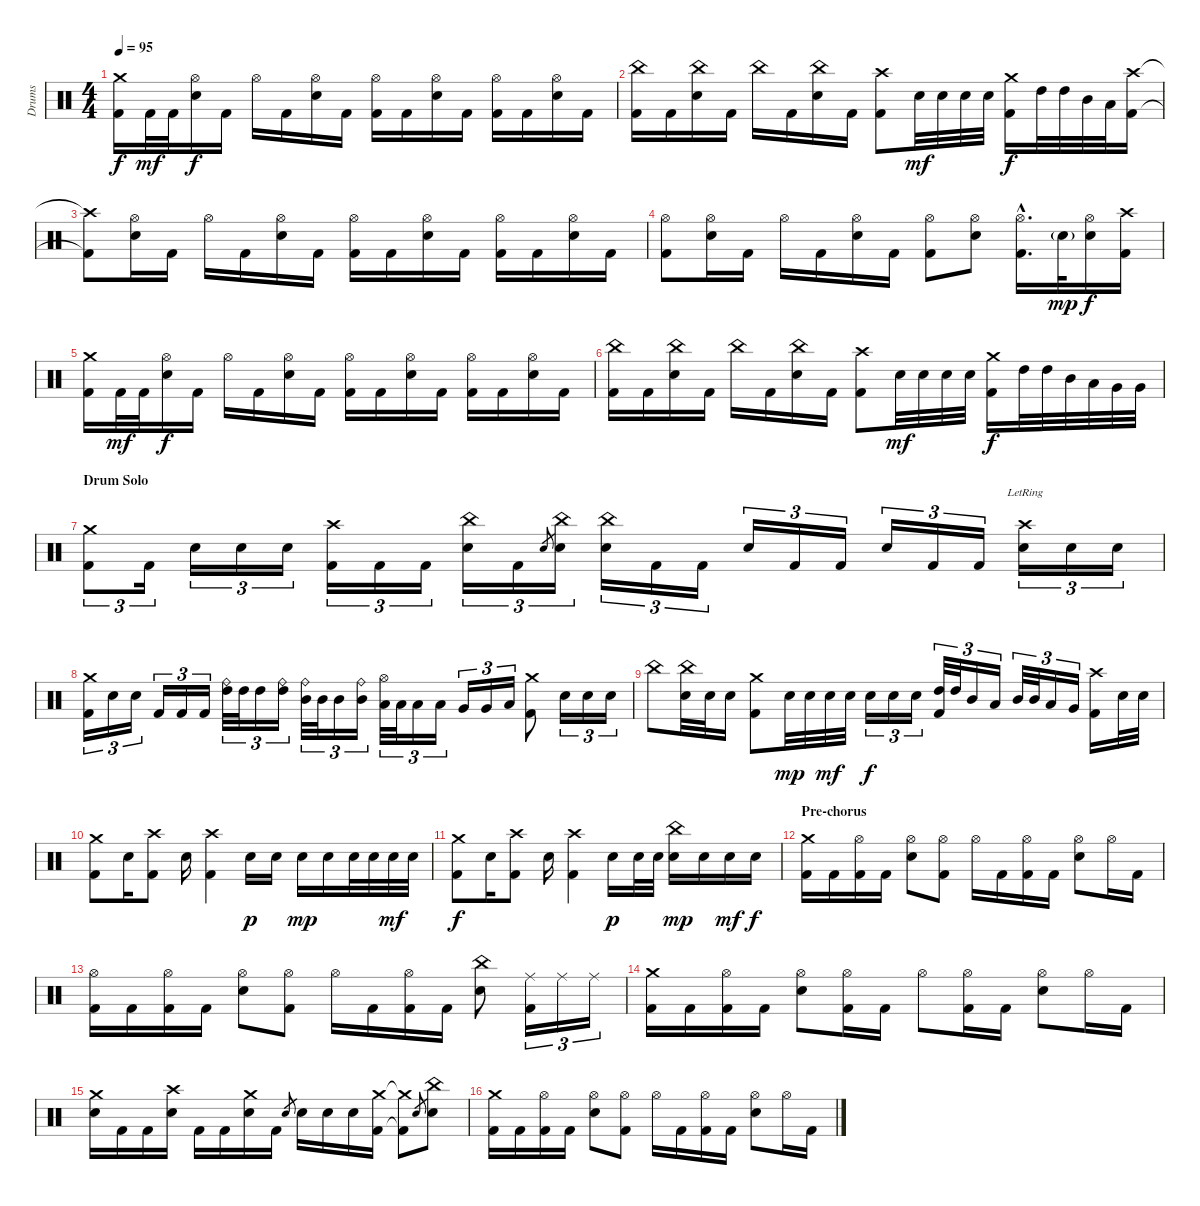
\track ("Drums" "Drums") {instrument percussion}
\staff {score}
\articulation defaults
\ts (4 4)
\tempo 95
\clef neutral
\ks c
("Crash medium (hit)" "Kick (hit) 2").16{dy f} "Kick (hit) 2".32{dy mf} "Kick (hit) 2".32 ("Hi-Hat (open)" "Snare (hit) 2").16{dy f} "Kick (hit) 2".16 "Hi-Hat (open)".16 "Kick (hit) 2".16 ("Hi-Hat (open)" "Snare (hit) 2").16 "Kick (hit) 2".16 ("Hi-Hat (open)" "Kick (hit) 2").16 "Kick (hit) 2".16 ("Hi-Hat (open)" "Snare (hit) 2").16 "Kick (hit) 2".16 ("Hi-Hat (open)" "Kick (hit) 2").16 "Kick (hit) 2".16 ("Hi-Hat (open)" "Snare (hit) 2").16 "Kick (hit) 2".16 |
("China (hit)" "Kick (hit) 2").16 "Kick (hit) 2".16 ("China (hit)" "Snare (hit) 2").16 "Kick (hit) 2".16 "China (hit)".16 "Kick (hit) 2".16 ("China (hit)" "Snare (hit) 2").16 "Kick (hit) 2".16 ("Crash high (hit)" "Kick (hit) 2").8 "Snare (hit) 2".32{dy mf} "Snare (hit) 2".32 "Snare (hit) 2".32 "Snare (hit) 2".32 ("Crash medium (hit)" "Kick (hit) 2").16{dy f} "High Tom (hit)".32 "High Tom (hit)".32 "Mid Tom (hit)".32 "Low Tom (hit)".32 ("Crash high (hit)" "Kick (hit) 2").16 |
("Crash high (hit)"{t} "Kick (hit) 2"{t}).8 ("Hi-Hat (open)" "Snare (hit) 2").16 "Kick (hit) 2".16 "Hi-Hat (open)".16 "Kick (hit) 2".16 ("Hi-Hat (open)" "Snare (hit) 2").16 "Kick (hit) 2".16 ("Hi-Hat (open)" "Kick (hit) 2").16 "Kick (hit) 2".16 ("Hi-Hat (open)" "Snare (hit) 2").16 "Kick (hit) 2".16 ("Hi-Hat (open)" "Kick (hit) 2").16 "Kick (hit) 2".16 ("Hi-Hat (open)" "Snare (hit) 2").16 "Kick (hit) 2".16 |
("Hi-Hat (open)" "Kick (hit) 2").8 ("Hi-Hat (open)" "Snare (hit) 2").16 "Kick (hit) 2".16 "Hi-Hat (open)".16 "Kick (hit) 2".16 ("Hi-Hat (open)" "Snare (hit) 2").16 "Kick (hit) 2".16 ("Hi-Hat (open)" "Kick (hit) 2").8 ("Hi-Hat (open)" "Snare (hit) 2").8 ("Hi-Hat (open)"{hac} "Kick (hit) 2"{hac}).16{d} "Snare (hit) 2"{g}.32{dy mp} ("Hi-Hat (open)" "Snare (hit) 2").16{dy f} ("Crash high (hit)" "Kick (hit) 2").16 |
("Crash medium (hit)" "Kick (hit) 2").16 "Kick (hit) 2".32{dy mf} "Kick (hit) 2".32 ("Hi-Hat (open)" "Snare (hit) 2").16{dy f} "Kick (hit) 2".16 "Hi-Hat (open)".16 "Kick (hit) 2".16 ("Hi-Hat (open)" "Snare (hit) 2").16 "Kick (hit) 2".16 ("Hi-Hat (open)" "Kick (hit) 2").16 "Kick (hit) 2".16 ("Hi-Hat (open)" "Snare (hit) 2").16 "Kick (hit) 2".16 ("Hi-Hat (open)" "Kick (hit) 2").16 "Kick (hit) 2".16 ("Hi-Hat (open)" "Snare (hit) 2").16 "Kick (hit) 2".16 |
("China (hit)" "Kick (hit) 2").16 "Kick (hit) 2".16 ("China (hit)" "Snare (hit) 2").16 "Kick (hit) 2".16 "China (hit)".16 "Kick (hit) 2".16 ("China (hit)" "Snare (hit) 2").16 "Kick (hit) 2".16 ("Crash high (hit)" "Kick (hit) 2").8 "Snare (hit) 2".32{dy mf} "Snare (hit) 2".32 "Snare (hit) 2".32 "Snare (hit) 2".32 ("Crash medium (hit)" "Kick (hit) 2").16{dy f} "High Tom (hit)".32 "High Tom (hit)".32 "Mid Tom (hit)".32 "Low Tom (hit)".32 "Very Low Tom (hit)".32 "Very Low Tom (hit)".32 |
\section ("" "Drum Solo")
("Crash medium (hit)" "Kick (hit) 2").8{tu (3 2)} "Kick (hit) 2".16{tu (3 2)} "Snare (hit) 2".16{tu (3 2)} "Snare (hit) 2".16{tu (3 2)} "Snare (hit) 2".16{tu (3 2)} ("Crash high (hit)" "Kick (hit) 2").16{tu (3 2)} "Kick (hit) 2".16{tu (3 2)} "Kick (hit) 2".16{tu (3 2)} ("China (hit)" "Snare (hit) 2").16{tu (3 2)} "Kick (hit) 2".16{tu (3 2)} "Snare (hit) 2".8{gr} ("China (hit)" "Snare (hit) 2").16{tu (3 2)} ("China (hit)" "Snare (hit) 2").16{tu (3 2)} "Kick (hit) 2".16{tu (3 2)} "Kick (hit) 2".16{tu (3 2)} "Snare (hit) 2".16{tu (3 2)} "Kick (hit) 2".16{tu (3 2)} "Kick (hit) 2".16{tu (3 2)} "Snare (hit) 2".16{tu (3 2)} "Kick (hit) 2".16{tu (3 2)} "Kick (hit) 2".16{tu (3 2)} ("Crash high (hit)"{lr} "Snare (hit) 2").16{tu (3 2)} "Snare (hit) 2".16{tu (3 2)} "Snare (hit) 2".16{tu (3 2)} |
("Crash medium (hit)" "Kick (hit) 2").16{tu (3 2)} "Snare (hit) 2".16{tu (3 2)} "Snare (hit) 2".16{tu (3 2)} "Kick (hit) 2".16{tu (3 2)} "Kick (hit) 2".16{tu (3 2)} "Kick (hit) 2".16{tu (3 2)} ("Ride (bell)" "High Tom (hit)").32{tu (3 2)} "High Tom (hit)".32{tu (3 2)} "High Tom (hit)".16{tu (3 2)} ("Ride (bell)" "High Tom (hit)").16{tu (3 2)} ("Ride (bell)" "Mid Tom (hit)").32{tu (3 2)} "Mid Tom (hit)".32{tu (3 2)} "Mid Tom (hit)".16{tu (3 2)} ("Ride (bell)" "Mid Tom (hit)").16{tu (3 2)} ("Hi-Hat (open)" "Low Tom (hit)").32{tu (3 2)} "Low Tom (hit)".32{tu (3 2)} "Low Tom (hit)".16{tu (3 2)} "Low Tom (hit)".16{tu (3 2)} "Very Low Tom (hit)".16{tu (3 2)} "Very Low Tom (hit)".16{tu (3 2)} "Low Floor Tom (hit)".16{tu (3 2)} ("Crash medium (hit)" "Kick (hit) 2").8 "Snare (hit) 2".16{tu (3 2)} "Snare (hit) 2".16{tu (3 2)} "Snare (hit) 2".16{tu (3 2)} |
"China (hit)".8 ("China (hit)" "Snare (hit) 2").32 "Snare (hit) 2".32 "Snare (hit) 2".16 ("Crash medium (hit)" "Kick (hit) 2").8 "Snare (hit) 2".32{dy mp} "Snare (hit) 2".32 "Snare (hit) 2".32{dy mf} "Snare (hit) 2".32 "Snare (hit) 2".16{tu (3 2) dy f} "Snare (hit) 2".16{tu (3 2)} "Snare (hit) 2".16{tu (3 2)} ("High Tom (hit)" "Kick (hit) 2").32{tu (3 2)} "High Tom (hit)".32{tu (3 2)} "Mid Tom (hit)".16{tu (3 2)} "Low Tom (hit)".16{tu (3 2)} "Mid Tom (hit)".32{tu (3 2)} "Mid Tom (hit)".32{tu (3 2)} "Low Tom (hit)".16{tu (3 2)} "Very Low Tom (hit)".16{tu (3 2)} ("Crash high (hit)" "Kick (hit) 2").16 "Snare (hit) 2".32 "Snare (hit) 2".32 |
("Crash medium (hit)" "Kick (hit) 2").8 "Snare (hit) 2".16 ("Crash high (hit)" "Kick (hit) 2").8 "Snare (hit) 2".16 ("Crash high (hit)" "Kick (hit) 2").4 "Snare (hit) 2".16{dy p} "Snare (hit) 2".16 "Snare (hit) 2".16{dy mp} "Snare (hit) 2".16 "Snare (hit) 2".32 "Snare (hit) 2".32 "Snare (hit) 2".32{dy mf} "Snare (hit) 2".32 |
("Crash medium (hit)" "Kick (hit) 2").8{dy f} "Snare (hit) 2".16 ("Crash high (hit)" "Kick (hit) 2").8 "Snare (hit) 2".16 ("Crash high (hit)" "Kick (hit) 2").4 "Snare (hit) 2".16{dy p} "Snare (hit) 2".32 "Snare (hit) 2".32 ("China (hit)" "Snare (hit) 2").16{dy mp} "Snare (hit) 2".16 "Snare (hit) 2".16{dy mf} "Snare (hit) 2".16{dy f} |
\section ("" "Pre-chorus")
("Crash medium (hit)" "Kick (hit) 2").16 "Kick (hit) 2".16 ("Hi-Hat (open)" "Kick (hit) 2").16 "Kick (hit) 2".16 ("Hi-Hat (open)" "Snare (hit) 2").8 ("Hi-Hat (open)" "Kick (hit) 2").8 "Hi-Hat (open)".16 "Kick (hit) 2".16 ("Hi-Hat (open)" "Kick (hit) 2").16 "Kick (hit) 2".16 ("Hi-Hat (open)" "Snare (hit) 2").8 "Hi-Hat (open)".16 "Kick (hit) 2".16 |
("Hi-Hat (open)" "Kick (hit) 2").16 "Kick (hit) 2".16 ("Hi-Hat (open)" "Kick (hit) 2").16 "Kick (hit) 2".16 ("Hi-Hat (open)" "Snare (hit) 2").8 ("Hi-Hat (open)" "Kick (hit) 2").8 "Hi-Hat (open)".16 "Kick (hit) 2".16 ("Hi-Hat (open)" "Kick (hit) 2").16 "Kick (hit) 2".16 ("China (hit)" "Snare (hit) 2").8 ("Ride (middle)" "Kick (hit) 2").16{tu (3 2)} "Ride (middle)".16{tu (3 2)} "Ride (middle)".16{tu (3 2)} |
("Crash medium (hit)" "Kick (hit) 2").16 "Kick (hit) 2".16 ("Hi-Hat (open)" "Kick (hit) 2").16 "Kick (hit) 2".16 ("Hi-Hat (open)" "Snare (hit) 2").8 ("Hi-Hat (open)" "Kick (hit) 2").16 "Kick (hit) 2".16 "Hi-Hat (open)".8 ("Hi-Hat (open)" "Kick (hit) 2").16 "Kick (hit) 2".16 ("Hi-Hat (open)" "Snare (hit) 2").8 "Hi-Hat (open)".16 "Kick (hit) 2".16 |
("Crash medium (hit)" "Snare (hit) 2").16 "Kick (hit) 2".16 "Kick (hit) 2".16 ("Crash high (hit)" "Snare (hit) 2").16 "Kick (hit) 2".16 "Kick (hit) 2".16 ("Crash medium (hit)" "Snare (hit) 2").16 "Kick (hit) 2".16 "Snare (hit) 2".8{gr} "Snare (hit) 2".16 "Snare (hit) 2".16 "Snare (hit) 2".16 ("Crash medium (hit)" "Kick (hit) 2").16 ("Crash medium (hit)"{t} "Kick (hit) 2"{t}).8 "Snare (hit) 2".8{gr} ("China (hit)" "Snare (hit) 2").8 |
("Crash medium (hit)" "Kick (hit) 2").16 "Kick (hit) 2".16 ("Hi-Hat (open)" "Kick (hit) 2").16 "Kick (hit) 2".16 ("Hi-Hat (open)" "Snare (hit) 2").8 ("Hi-Hat (open)" "Kick (hit) 2").8 "Hi-Hat (open)".16 "Kick (hit) 2".16 ("Hi-Hat (open)" "Kick (hit) 2").16 "Kick (hit) 2".16 ("Hi-Hat (open)" "Snare (hit) 2").8 "Hi-Hat (open)".16 "Kick (hit) 2".16
